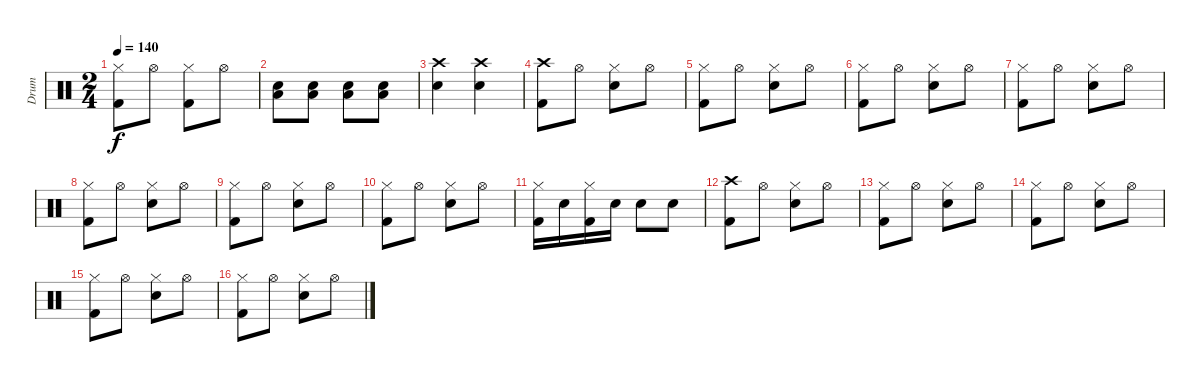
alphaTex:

\track ("Drum" "Drum") {instrument percussion}
\staff {score}
\articulation defaults
\ts (2 4)
\tempo 140
\clef neutral
\ks c
("Hi-Hat (closed)" "Kick (hit) 2").8{dy f} "Hi-Hat (open)".8 ("Hi-Hat (closed)" "Kick (hit) 2").8 "Hi-Hat (open)".8 |
("Electric Snare (hit)" "Low Tom (hit)").8 ("Low Tom (hit)" "Electric Snare (hit)").8 ("Electric Snare (hit)" "Low Tom (hit)").8 ("Low Tom (hit)" "Electric Snare (hit)").8 |
("Electric Snare (hit)" "Crash high (hit)").4 ("Electric Snare (hit)" "Crash high (hit)").4 |
("Crash high (hit)" "Kick (hit) 2").8 "Hi-Hat (open)".8 ("Hi-Hat (closed)" "Electric Snare (hit)").8 "Hi-Hat (open)".8 |
("Kick (hit) 2" "Hi-Hat (closed)").8 "Hi-Hat (open)".8 ("Hi-Hat (closed)" "Electric Snare (hit)").8 "Hi-Hat (open)".8 |
("Hi-Hat (closed)" "Kick (hit) 2").8 "Hi-Hat (open)".8 ("Hi-Hat (closed)" "Electric Snare (hit)").8 "Hi-Hat (open)".8 |
("Hi-Hat (closed)" "Kick (hit) 2").8 "Hi-Hat (open)".8 ("Hi-Hat (closed)" "Electric Snare (hit)").8 "Hi-Hat (open)".8 |
("Kick (hit) 2" "Hi-Hat (closed)").8 "Hi-Hat (open)".8 ("Hi-Hat (closed)" "Electric Snare (hit)").8 "Hi-Hat (open)".8 |
("Hi-Hat (closed)" "Kick (hit) 2").8 "Hi-Hat (open)".8 ("Hi-Hat (closed)" "Electric Snare (hit)").8 "Hi-Hat (open)".8 |
("Hi-Hat (closed)" "Kick (hit) 2").8 "Hi-Hat (open)".8 ("Hi-Hat (closed)" "Electric Snare (hit)").8 "Hi-Hat (open)".8 |
("Hi-Hat (closed)" "Kick (hit) 2").16 "Electric Snare (hit)".16 ("Hi-Hat (closed)" "Kick (hit) 2").16 "Electric Snare (hit)".16 "Electric Snare (hit)".8 "Electric Snare (hit)".8 |
("Crash high (hit)" "Kick (hit) 2").8 "Hi-Hat (open)".8 ("Hi-Hat (closed)" "Electric Snare (hit)").8 "Hi-Hat (open)".8 |
("Kick (hit) 2" "Hi-Hat (closed)").8 "Hi-Hat (open)".8 ("Hi-Hat (closed)" "Electric Snare (hit)").8 "Hi-Hat (open)".8 |
("Hi-Hat (closed)" "Kick (hit) 2").8 "Hi-Hat (open)".8 ("Hi-Hat (closed)" "Electric Snare (hit)").8 "Hi-Hat (open)".8 |
("Hi-Hat (closed)" "Kick (hit) 2").8 "Hi-Hat (open)".8 ("Hi-Hat (closed)" "Electric Snare (hit)").8 "Hi-Hat (open)".8 |
("Hi-Hat (closed)" "Kick (hit) 2").8 "Hi-Hat (open)".8 ("Hi-Hat (closed)" "Electric Snare (hit)").8 "Hi-Hat (open)".8
